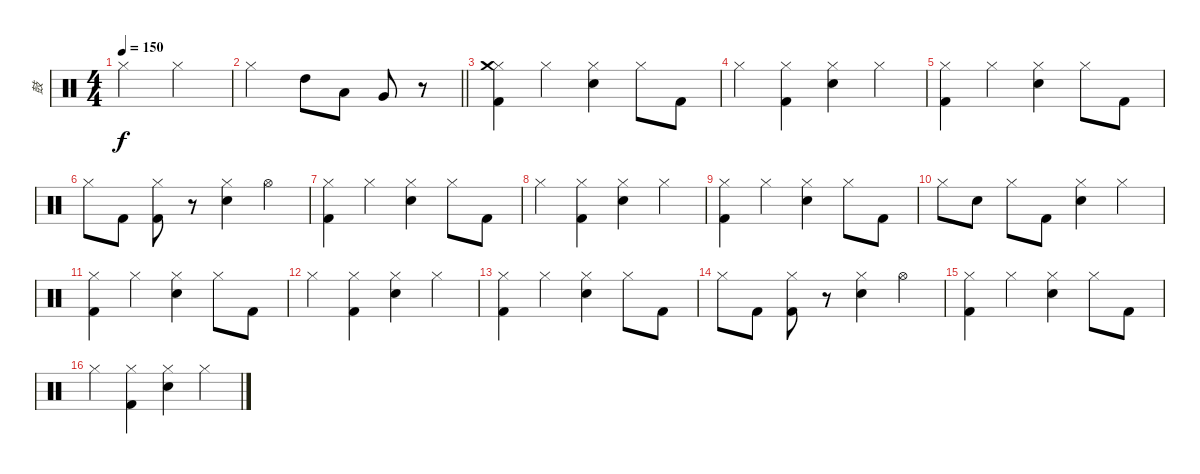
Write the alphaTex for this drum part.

\track ("鼓" "鼓") {instrument percussion}
\staff {score}
\articulation defaults
\ts (4 4)
\tempo 150
\clef neutral
\ks c "Hi-Hat (closed)".2{dy f} "Hi-Hat (closed)".2
|
\barLineRight lightlight "Hi-Hat (closed)".2 "High Tom (hit)".8 "Low Tom (hit)".8 "Very Low Tom (hit)".8
r.8 |
("Hi-Hat (closed)" "Crash medium (hit)" "Kick (hit) 2").4 "Hi-Hat (closed)".4 ("Hi-Hat (closed)" "Electric Snare (hit)").4 "Hi-Hat (closed)".8 "Kick (hit) 2".8 |
"Hi-Hat (closed)".4 ("Hi-Hat (closed)" "Kick (hit) 2").4 ("Hi-Hat (closed)" "Electric Snare (hit)").4 "Hi-Hat (closed)".4 |
("Hi-Hat (closed)" "Kick (hit) 2").4 "Hi-Hat (closed)".4 ("Hi-Hat (closed)" "Electric Snare (hit)").4 "Hi-Hat (closed)".8 "Kick (hit) 2".8 |
"Hi-Hat (closed)".8 "Kick (hit) 2".8 ("Hi-Hat (closed)" "Kick (hit) 2").8 r.8 ("Hi-Hat (closed)" "Electric Snare (hit)").4 "Hi-Hat (open)".4 |
("Hi-Hat (closed)" "Kick (hit) 2").4 "Hi-Hat (closed)".4 ("Hi-Hat (closed)" "Electric Snare (hit)").4 "Hi-Hat (closed)".8 "Kick (hit) 2".8 |
"Hi-Hat (closed)".4 ("Hi-Hat (closed)" "Kick (hit) 2").4 ("Hi-Hat (closed)" "Electric Snare (hit)").4 "Hi-Hat (closed)".4 |
("Hi-Hat (closed)" "Kick (hit) 2").4 "Hi-Hat (closed)".4 ("Hi-Hat (closed)" "Electric Snare (hit)").4 "Hi-Hat (closed)".8 "Kick (hit) 2".8 |
"Hi-Hat (closed)".8 "Electric Snare (hit)".8 "Hi-Hat (closed)".8 "Kick (hit) 2".8 ("Hi-Hat (closed)" "Electric Snare (hit)").4 "Hi-Hat (closed)".4 |
("Hi-Hat (closed)" "Kick (hit) 2").4 "Hi-Hat (closed)".4 ("Hi-Hat (closed)" "Electric Snare (hit)").4 "Hi-Hat (closed)".8 "Kick (hit) 2".8 |
"Hi-Hat (closed)".4 ("Hi-Hat (closed)" "Kick (hit) 2").4 ("Hi-Hat (closed)" "Electric Snare (hit)").4 "Hi-Hat (closed)".4 |
("Hi-Hat (closed)" "Kick (hit) 2").4 "Hi-Hat (closed)".4 ("Hi-Hat (closed)" "Electric Snare (hit)").4 "Hi-Hat (closed)".8 "Kick (hit) 2".8 |
"Hi-Hat (closed)".8 "Kick (hit) 2".8 ("Hi-Hat (closed)" "Kick (hit) 2").8 r.8 ("Hi-Hat (closed)" "Electric Snare (hit)").4 "Hi-Hat (open)".4 |
("Hi-Hat (closed)" "Kick (hit) 2").4 "Hi-Hat (closed)".4 ("Hi-Hat (closed)" "Electric Snare (hit)").4 "Hi-Hat (closed)".8 "Kick (hit) 2".8 |
"Hi-Hat (closed)".4 ("Hi-Hat (closed)" "Kick (hit) 2").4 ("Hi-Hat (closed)" "Electric Snare (hit)").4 "Hi-Hat (closed)".4
